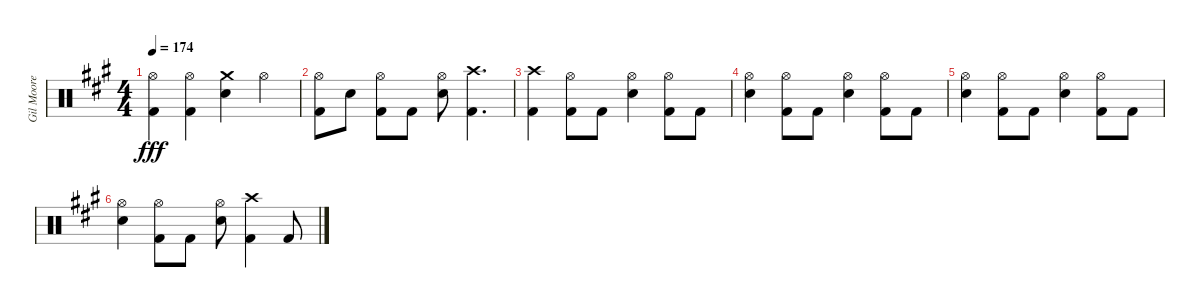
\track ("Gil Moore" "Gil Moore") {instrument percussion}
\staff {score}
\articulation defaults
\ts (4 4)
\tempo 174
\clef neutral
\ks a
("Hi-Hat (open)" "Kick (hit) 2").4{dy fff} ("Hi-Hat (open)" "Kick (hit) 2").4 ("Crash medium (hit)" "Snare (hit) 2").4 "Hi-Hat (open)".4 |
("Hi-Hat (open)" "Kick (hit) 2").8 "Snare (hit) 2".8 ("Hi-Hat (open)" "Kick (hit) 2").8 "Kick (hit) 2".8 ("Hi-Hat (open)" "Snare (hit) 2").8 ("Crash high (hit)" "Kick (hit) 2").4{d} |
("Crash high (hit)" "Kick (hit) 2").4 ("Hi-Hat (open)" "Kick (hit) 2").8 "Kick (hit) 2".8 ("Hi-Hat (open)" "Snare (hit) 2").4 ("Hi-Hat (open)" "Kick (hit) 2").8 "Kick (hit) 2".8 |
("Hi-Hat (open)" "Snare (hit) 2").4 ("Hi-Hat (open)" "Kick (hit) 2").8 "Kick (hit) 2".8 ("Hi-Hat (open)" "Snare (hit) 2").4 ("Hi-Hat (open)" "Kick (hit) 2").8 "Kick (hit) 2".8 |
("Hi-Hat (open)" "Snare (hit) 2").4 ("Hi-Hat (open)" "Kick (hit) 2").8 "Kick (hit) 2".8 ("Hi-Hat (open)" "Snare (hit) 2").4 ("Hi-Hat (open)" "Kick (hit) 2").8 "Kick (hit) 2".8 |
("Hi-Hat (open)" "Snare (hit) 2").4 ("Hi-Hat (open)" "Kick (hit) 2").8 "Kick (hit) 2".8 ("Hi-Hat (open)" "Snare (hit) 2").8 ("Crash high (hit)" "Kick (hit) 2").4 "Kick (hit) 2".8
